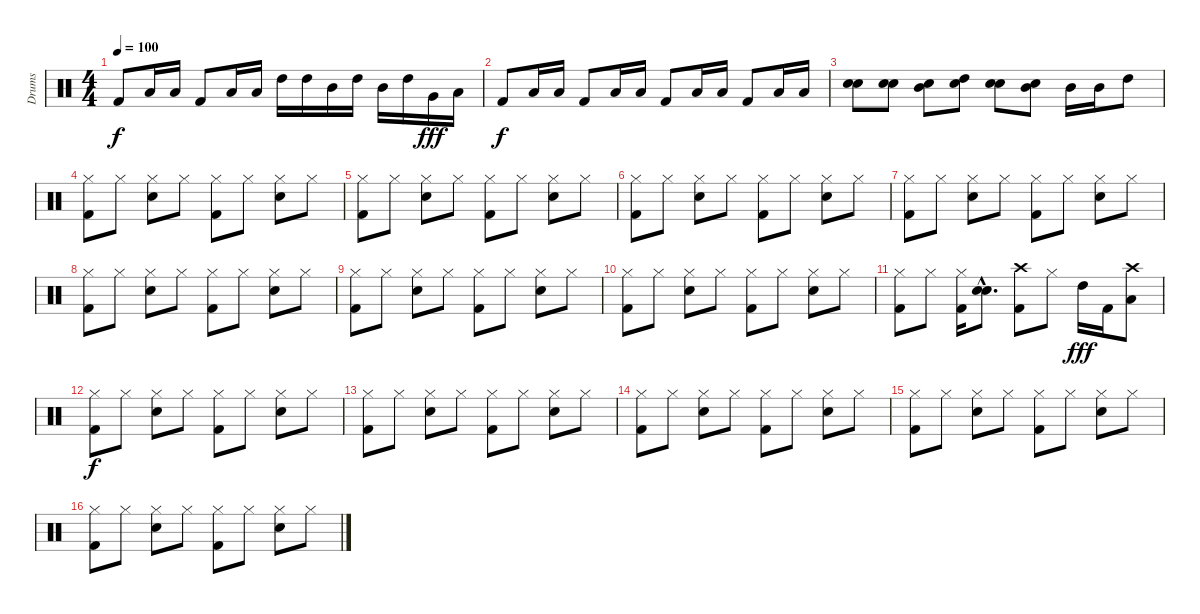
\track ("Drums" "Drums") {instrument percussion}
\staff {score}
\articulation defaults
\ts (4 4)
\tempo 100
\clef neutral
\ks c "Kick (hit) 2".8{dy f} "Low Tom (hit)".16 "Low Tom (hit)".16 "Kick (hit) 2".8 "Low Tom (hit)".16 "Low Tom (hit)".16 "High Tom (hit)".16 "High Tom (hit)".16 "Mid Tom (hit)".16 "High Tom (hit)".16 "Mid Tom (hit)".16 "High Tom (hit)".16 "Very Low Tom (hit)".16{dy fff} "Low Tom (hit)".16
|
"Kick (hit) 2".8{dy f} "Low Tom (hit)".16 "Low Tom (hit)".16 "Kick (hit) 2".8 "Low Tom (hit)".16 "Low Tom (hit)".16 "Kick (hit) 2".8 "Low Tom (hit)".16 "Low Tom (hit)".16 "Kick (hit) 2".8 "Low Tom (hit)".16 "Low Tom (hit)".16 |
("Snare (hit) 2" "Snare (hit) 2").8 ("Snare (hit) 2" "Snare (hit) 2").8 ("Snare (hit) 2" "Mid Tom (hit)").8 ("Snare (hit) 2" "High Tom (hit)").8 ("Snare (hit) 2" "Snare (hit) 2").8 ("Snare (hit) 2" "Mid Tom (hit)").8 "Mid Tom (hit)".16 "Mid Tom (hit)".16 "High Tom (hit)".8 |
("Kick (hit) 2" "Hi-Hat (closed)").8 "Hi-Hat (closed)".8 ("Snare (hit) 2" "Hi-Hat (closed)").8 "Hi-Hat (closed)".8 ("Kick (hit) 2" "Hi-Hat (closed)").8 "Hi-Hat (closed)".8 ("Snare (hit) 2" "Hi-Hat (closed)").8 "Hi-Hat (closed)".8 |
("Kick (hit) 2" "Hi-Hat (closed)").8 "Hi-Hat (closed)".8 ("Snare (hit) 2" "Hi-Hat (closed)").8 "Hi-Hat (closed)".8 ("Kick (hit) 2" "Hi-Hat (closed)").8 "Hi-Hat (closed)".8 ("Snare (hit) 2" "Hi-Hat (closed)").8 "Hi-Hat (closed)".8 |
("Kick (hit) 2" "Hi-Hat (closed)").8 "Hi-Hat (closed)".8 ("Snare (hit) 2" "Hi-Hat (closed)").8 "Hi-Hat (closed)".8 ("Kick (hit) 2" "Hi-Hat (closed)").8 "Hi-Hat (closed)".8 ("Snare (hit) 2" "Hi-Hat (closed)").8 "Hi-Hat (closed)".8 |
("Kick (hit) 2" "Hi-Hat (closed)").8 "Hi-Hat (closed)".8 ("Snare (hit) 2" "Hi-Hat (closed)").8 "Hi-Hat (closed)".8 ("Kick (hit) 2" "Hi-Hat (closed)").8 "Hi-Hat (closed)".8 ("Snare (hit) 2" "Hi-Hat (closed)").8 "Hi-Hat (closed)".8 |
("Kick (hit) 2" "Hi-Hat (closed)").8 "Hi-Hat (closed)".8 ("Snare (hit) 2" "Hi-Hat (closed)").8 "Hi-Hat (closed)".8 ("Kick (hit) 2" "Hi-Hat (closed)").8 "Hi-Hat (closed)".8 ("Snare (hit) 2" "Hi-Hat (closed)").8 "Hi-Hat (closed)".8 |
("Kick (hit) 2" "Hi-Hat (closed)").8 "Hi-Hat (closed)".8 ("Snare (hit) 2" "Hi-Hat (closed)").8 "Hi-Hat (closed)".8 ("Kick (hit) 2" "Hi-Hat (closed)").8 "Hi-Hat (closed)".8 ("Snare (hit) 2" "Hi-Hat (closed)").8 "Hi-Hat (closed)".8 |
("Kick (hit) 2" "Hi-Hat (closed)").8 "Hi-Hat (closed)".8 ("Snare (hit) 2" "Hi-Hat (closed)").8 "Hi-Hat (closed)".8 ("Kick (hit) 2" "Hi-Hat (closed)").8 "Hi-Hat (closed)".8 ("Snare (hit) 2" "Hi-Hat (closed)").8 "Hi-Hat (closed)".8 |
("Kick (hit) 2" "Hi-Hat (closed)").8 "Hi-Hat (closed)".8 ("Kick (hit) 2" "Hi-Hat (closed)").16 ("Snare (hit) 2"{hac} "Snare (hit) 2"{hac}).8{d} ("Kick (hit) 2" "Crash high (hit)").8 "Hi-Hat (closed)".8 "High Tom (hit)".16{dy fff} "Kick (hit) 2".16 ("Low Tom (hit)" "Crash high (hit)").8 |
("Kick (hit) 2" "Hi-Hat (closed)").8{dy f} "Hi-Hat (closed)".8 ("Snare (hit) 2" "Hi-Hat (closed)").8 "Hi-Hat (closed)".8 ("Kick (hit) 2" "Hi-Hat (closed)").8 "Hi-Hat (closed)".8 ("Snare (hit) 2" "Hi-Hat (closed)").8 "Hi-Hat (closed)".8 |
("Kick (hit) 2" "Hi-Hat (closed)").8 "Hi-Hat (closed)".8 ("Snare (hit) 2" "Hi-Hat (closed)").8 "Hi-Hat (closed)".8 ("Kick (hit) 2" "Hi-Hat (closed)").8 "Hi-Hat (closed)".8 ("Snare (hit) 2" "Hi-Hat (closed)").8 "Hi-Hat (closed)".8 |
("Kick (hit) 2" "Hi-Hat (closed)").8 "Hi-Hat (closed)".8 ("Snare (hit) 2" "Hi-Hat (closed)").8 "Hi-Hat (closed)".8 ("Kick (hit) 2" "Hi-Hat (closed)").8 "Hi-Hat (closed)".8 ("Snare (hit) 2" "Hi-Hat (closed)").8 "Hi-Hat (closed)".8 |
("Kick (hit) 2" "Hi-Hat (closed)").8 "Hi-Hat (closed)".8 ("Snare (hit) 2" "Hi-Hat (closed)").8 "Hi-Hat (closed)".8 ("Kick (hit) 2" "Hi-Hat (closed)").8 "Hi-Hat (closed)".8 ("Snare (hit) 2" "Hi-Hat (closed)").8 "Hi-Hat (closed)".8 |
("Kick (hit) 2" "Hi-Hat (closed)").8 "Hi-Hat (closed)".8 ("Snare (hit) 2" "Hi-Hat (closed)").8 "Hi-Hat (closed)".8 ("Kick (hit) 2" "Hi-Hat (closed)").8 "Hi-Hat (closed)".8 ("Snare (hit) 2" "Hi-Hat (closed)").8 "Hi-Hat (closed)".8
